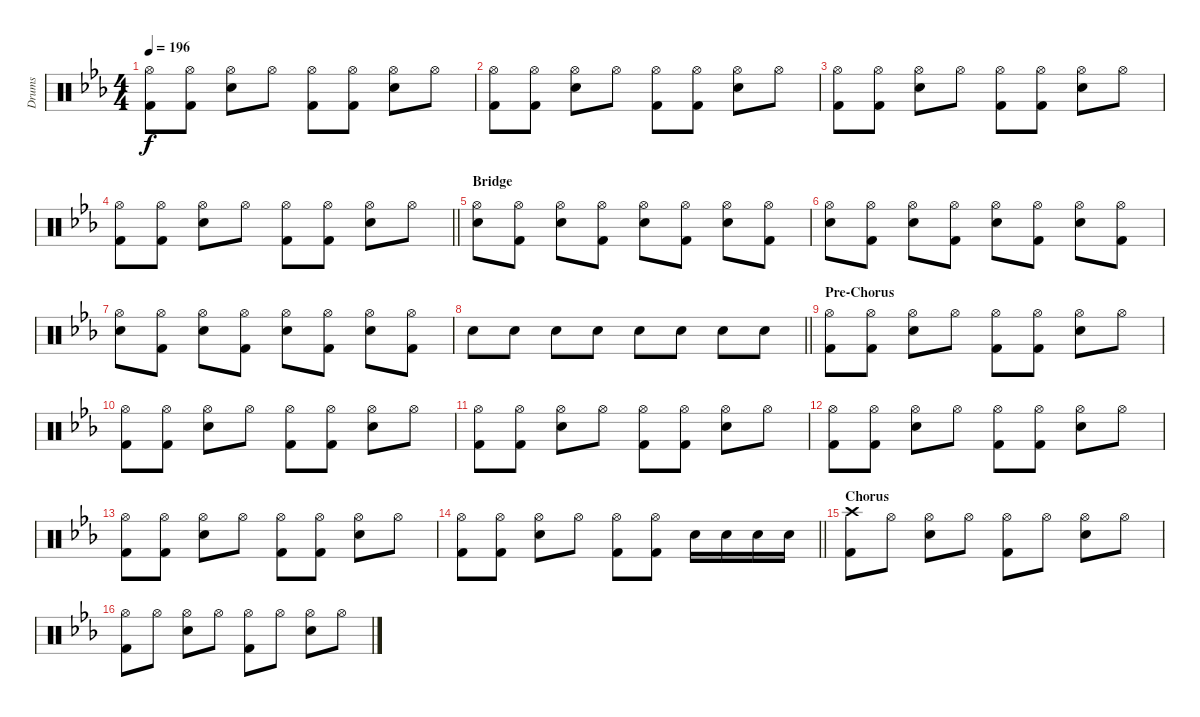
\track ("Drums" "Drums") {instrument percussion}
\staff {score}
\articulation defaults
\ts (4 4)
\tempo 196
\clef neutral
\ks eb
("Hi-Hat (open)" "Kick (hit) 2").8{dy f} ("Hi-Hat (open)" "Kick (hit) 2").8 ("Hi-Hat (open)" "Snare (hit) 2").8 "Hi-Hat (open)".8 ("Hi-Hat (open)" "Kick (hit) 2").8 ("Hi-Hat (open)" "Kick (hit) 2").8 ("Hi-Hat (open)" "Snare (hit) 2").8 "Hi-Hat (open)".8 |
("Hi-Hat (open)" "Kick (hit) 2").8 ("Hi-Hat (open)" "Kick (hit) 2").8 ("Hi-Hat (open)" "Snare (hit) 2").8 "Hi-Hat (open)".8 ("Hi-Hat (open)" "Kick (hit) 2").8 ("Hi-Hat (open)" "Kick (hit) 2").8 ("Hi-Hat (open)" "Snare (hit) 2").8 "Hi-Hat (open)".8 |
("Hi-Hat (open)" "Kick (hit) 2").8 ("Hi-Hat (open)" "Kick (hit) 2").8 ("Hi-Hat (open)" "Snare (hit) 2").8 "Hi-Hat (open)".8 ("Hi-Hat (open)" "Kick (hit) 2").8 ("Hi-Hat (open)" "Kick (hit) 2").8 ("Hi-Hat (open)" "Snare (hit) 2").8 "Hi-Hat (open)".8 |
\barLineRight lightlight
("Hi-Hat (open)" "Kick (hit) 2").8 ("Hi-Hat (open)" "Kick (hit) 2").8 ("Hi-Hat (open)" "Snare (hit) 2").8 "Hi-Hat (open)".8 ("Hi-Hat (open)" "Kick (hit) 2").8 ("Hi-Hat (open)" "Kick (hit) 2").8 ("Hi-Hat (open)" "Snare (hit) 2").8 "Hi-Hat (open)".8 |
\section ("" "Bridge")
("Hi-Hat (open)" "Snare (hit) 2").8 ("Hi-Hat (open)" "Kick (hit) 2").8 ("Hi-Hat (open)" "Snare (hit) 2").8 ("Hi-Hat (open)" "Kick (hit) 2").8 ("Hi-Hat (open)" "Snare (hit) 2").8 ("Hi-Hat (open)" "Kick (hit) 2").8 ("Hi-Hat (open)" "Snare (hit) 2").8 ("Hi-Hat (open)" "Kick (hit) 2").8 |
("Hi-Hat (open)" "Snare (hit) 2").8 ("Hi-Hat (open)" "Kick (hit) 2").8 ("Hi-Hat (open)" "Snare (hit) 2").8 ("Hi-Hat (open)" "Kick (hit) 2").8 ("Hi-Hat (open)" "Snare (hit) 2").8 ("Hi-Hat (open)" "Kick (hit) 2").8 ("Hi-Hat (open)" "Snare (hit) 2").8 ("Hi-Hat (open)" "Kick (hit) 2").8 |
("Hi-Hat (open)" "Snare (hit) 2").8 ("Hi-Hat (open)" "Kick (hit) 2").8 ("Hi-Hat (open)" "Snare (hit) 2").8 ("Hi-Hat (open)" "Kick (hit) 2").8 ("Hi-Hat (open)" "Snare (hit) 2").8 ("Hi-Hat (open)" "Kick (hit) 2").8 ("Hi-Hat (open)" "Snare (hit) 2").8 ("Hi-Hat (open)" "Kick (hit) 2").8 |
\barLineRight lightlight "Snare (hit) 2".8 "Snare (hit) 2".8 "Snare (hit) 2".8 "Snare (hit) 2".8 "Snare (hit) 2".8 "Snare (hit) 2".8 "Snare (hit) 2".8 "Snare (hit) 2".8
|
\section ("" "Pre-Chorus")
("Hi-Hat (open)" "Kick (hit) 2").8 ("Hi-Hat (open)" "Kick (hit) 2").8 ("Hi-Hat (open)" "Snare (hit) 2").8 "Hi-Hat (open)".8 ("Hi-Hat (open)" "Kick (hit) 2").8 ("Hi-Hat (open)" "Kick (hit) 2").8 ("Hi-Hat (open)" "Snare (hit) 2").8 "Hi-Hat (open)".8 |
("Hi-Hat (open)" "Kick (hit) 2").8 ("Hi-Hat (open)" "Kick (hit) 2").8 ("Hi-Hat (open)" "Snare (hit) 2").8 "Hi-Hat (open)".8 ("Hi-Hat (open)" "Kick (hit) 2").8 ("Hi-Hat (open)" "Kick (hit) 2").8 ("Hi-Hat (open)" "Snare (hit) 2").8 "Hi-Hat (open)".8 |
("Hi-Hat (open)" "Kick (hit) 2").8 ("Hi-Hat (open)" "Kick (hit) 2").8 ("Hi-Hat (open)" "Snare (hit) 2").8 "Hi-Hat (open)".8 ("Hi-Hat (open)" "Kick (hit) 2").8 ("Hi-Hat (open)" "Kick (hit) 2").8 ("Hi-Hat (open)" "Snare (hit) 2").8 "Hi-Hat (open)".8 |
("Hi-Hat (open)" "Kick (hit) 2").8 ("Hi-Hat (open)" "Kick (hit) 2").8 ("Hi-Hat (open)" "Snare (hit) 2").8 "Hi-Hat (open)".8 ("Hi-Hat (open)" "Kick (hit) 2").8 ("Hi-Hat (open)" "Kick (hit) 2").8 ("Hi-Hat (open)" "Snare (hit) 2").8 "Hi-Hat (open)".8 |
("Hi-Hat (open)" "Kick (hit) 2").8 ("Hi-Hat (open)" "Kick (hit) 2").8 ("Hi-Hat (open)" "Snare (hit) 2").8 "Hi-Hat (open)".8 ("Hi-Hat (open)" "Kick (hit) 2").8 ("Hi-Hat (open)" "Kick (hit) 2").8 ("Hi-Hat (open)" "Snare (hit) 2").8 "Hi-Hat (open)".8 |
\barLineRight lightlight
("Hi-Hat (open)" "Kick (hit) 2").8 ("Hi-Hat (open)" "Kick (hit) 2").8 ("Hi-Hat (open)" "Snare (hit) 2").8 "Hi-Hat (open)".8 ("Hi-Hat (open)" "Kick (hit) 2").8 ("Hi-Hat (open)" "Kick (hit) 2").8 "Snare (hit) 2".16 "Snare (hit) 2".16 "Snare (hit) 2".16 "Snare (hit) 2".16 |
\section ("" "Chorus")
("Crash high (hit)" "Kick (hit) 2").8 "Hi-Hat (open)".8 ("Hi-Hat (open)" "Snare (hit) 2").8 "Hi-Hat (open)".8 ("Hi-Hat (open)" "Kick (hit) 2").8 "Hi-Hat (open)".8 ("Hi-Hat (open)" "Snare (hit) 2").8 "Hi-Hat (open)".8 |
("Hi-Hat (open)" "Kick (hit) 2").8 "Hi-Hat (open)".8 ("Hi-Hat (open)" "Snare (hit) 2").8 "Hi-Hat (open)".8 ("Hi-Hat (open)" "Kick (hit) 2").8 "Hi-Hat (open)".8 ("Hi-Hat (open)" "Snare (hit) 2").8 "Hi-Hat (open)".8
